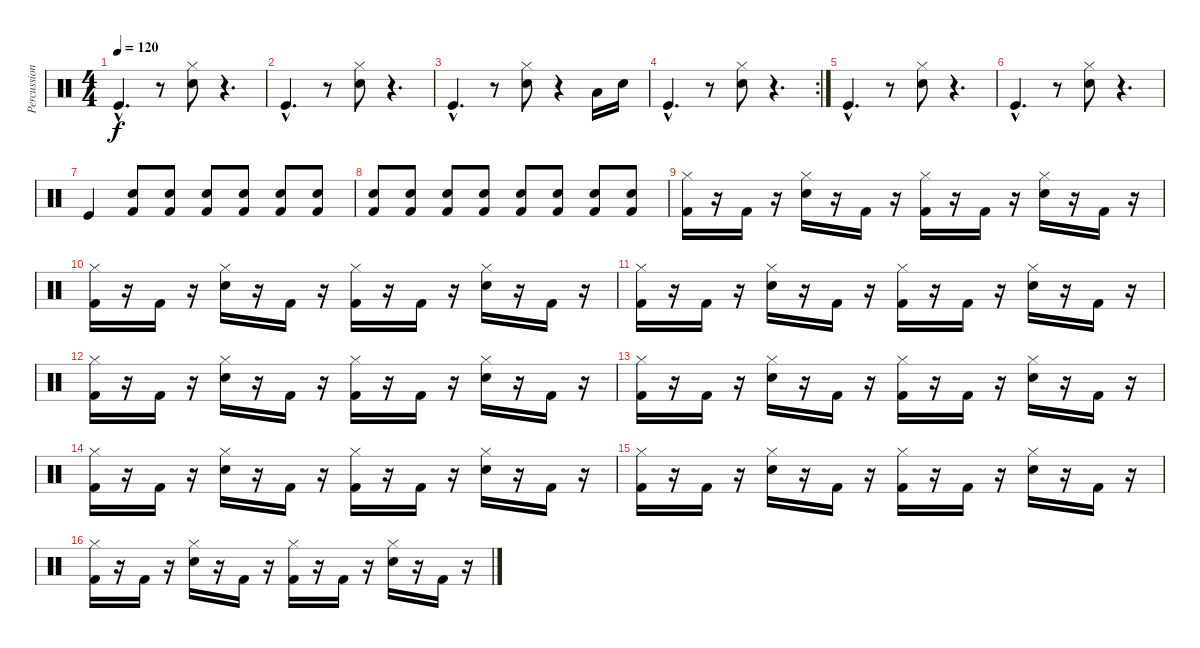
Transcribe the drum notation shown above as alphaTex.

\track ("Percussion" "Percussion") {instrument percussion}
\staff {score}
\articulation defaults
\ts (4 4)
\tempo 120
\clef neutral
\ks c "Kick (hit)"{hac}.4{d dy f}
r.8 ("Snare (hit) 2" "Hi-Hat (closed)").8 r.4{d} |
"Kick (hit)"{hac}.4{d} r.8 ("Snare (hit) 2" "Hi-Hat (closed)").8 r.4{d} |
"Kick (hit)"{hac}.4{d} r.8 ("Snare (hit) 2" "Hi-Hat (closed)").8 r.4 "Low Floor Tom (hit)".16 "Snare (hit) 2".16 |
\rc 2 "Kick (hit)"{hac}.4{d}
r.8 ("Snare (hit) 2" "Hi-Hat (closed)").8 r.4{d} |
"Kick (hit)"{hac}.4{d} r.8 ("Snare (hit) 2" "Hi-Hat (closed)").8 r.4{d} |
"Kick (hit)"{hac}.4{d} r.8 ("Snare (hit) 2" "Hi-Hat (closed)").8 r.4{d} |
"Kick (hit)".4 ("Kick (hit) 2" "Snare (hit) 2").8 ("Kick (hit) 2" "Snare (hit) 2").8 ("Kick (hit) 2" "Snare (hit) 2").8 ("Kick (hit) 2" "Snare (hit) 2").8 ("Kick (hit) 2" "Snare (hit) 2").8 ("Kick (hit) 2" "Snare (hit) 2").8 |
("Kick (hit) 2" "Snare (hit) 2").8 ("Kick (hit) 2" "Snare (hit) 2").8 ("Kick (hit) 2" "Snare (hit) 2").8 ("Kick (hit) 2" "Snare (hit) 2").8 ("Kick (hit) 2" "Snare (hit) 2").8 ("Kick (hit) 2" "Snare (hit) 2").8 ("Kick (hit) 2" "Snare (hit) 2").8 ("Kick (hit) 2" "Snare (hit) 2").8 |
("Kick (hit) 2" "Hi-Hat (closed)").16 r.16 "Kick (hit) 2".16 r.16 ("Snare (hit) 2" "Hi-Hat (closed)").16 r.16 "Kick (hit) 2".16 r.16 ("Kick (hit) 2" "Hi-Hat (closed)").16 r.16 "Kick (hit) 2".16 r.16 ("Snare (hit) 2" "Hi-Hat (closed)").16 r.16 "Kick (hit) 2".16 r.16 |
("Kick (hit) 2" "Hi-Hat (closed)").16 r.16 "Kick (hit) 2".16 r.16 ("Snare (hit) 2" "Hi-Hat (closed)").16 r.16 "Kick (hit) 2".16 r.16 ("Kick (hit) 2" "Hi-Hat (closed)").16 r.16 "Kick (hit) 2".16 r.16 ("Snare (hit) 2" "Hi-Hat (closed)").16 r.16 "Kick (hit) 2".16 r.16 |
("Kick (hit) 2" "Hi-Hat (closed)").16 r.16 "Kick (hit) 2".16 r.16 ("Snare (hit) 2" "Hi-Hat (closed)").16 r.16 "Kick (hit) 2".16 r.16 ("Kick (hit) 2" "Hi-Hat (closed)").16 r.16 "Kick (hit) 2".16 r.16 ("Snare (hit) 2" "Hi-Hat (closed)").16 r.16 "Kick (hit) 2".16 r.16 |
("Kick (hit) 2" "Hi-Hat (closed)").16 r.16 "Kick (hit) 2".16 r.16 ("Snare (hit) 2" "Hi-Hat (closed)").16 r.16 "Kick (hit) 2".16 r.16 ("Kick (hit) 2" "Hi-Hat (closed)").16 r.16 "Kick (hit) 2".16 r.16 ("Snare (hit) 2" "Hi-Hat (closed)").16 r.16 "Kick (hit) 2".16 r.16 |
("Kick (hit) 2" "Hi-Hat (closed)").16 r.16 "Kick (hit) 2".16 r.16 ("Snare (hit) 2" "Hi-Hat (closed)").16 r.16 "Kick (hit) 2".16 r.16 ("Kick (hit) 2" "Hi-Hat (closed)").16 r.16 "Kick (hit) 2".16 r.16 ("Snare (hit) 2" "Hi-Hat (closed)").16 r.16 "Kick (hit) 2".16 r.16 |
("Kick (hit) 2" "Hi-Hat (closed)").16 r.16 "Kick (hit) 2".16 r.16 ("Snare (hit) 2" "Hi-Hat (closed)").16 r.16 "Kick (hit) 2".16 r.16 ("Kick (hit) 2" "Hi-Hat (closed)").16 r.16 "Kick (hit) 2".16 r.16 ("Snare (hit) 2" "Hi-Hat (closed)").16 r.16 "Kick (hit) 2".16 r.16 |
("Kick (hit) 2" "Hi-Hat (closed)").16 r.16 "Kick (hit) 2".16 r.16 ("Snare (hit) 2" "Hi-Hat (closed)").16 r.16 "Kick (hit) 2".16 r.16 ("Kick (hit) 2" "Hi-Hat (closed)").16 r.16 "Kick (hit) 2".16 r.16 ("Snare (hit) 2" "Hi-Hat (closed)").16 r.16 "Kick (hit) 2".16 r.16 |
("Kick (hit) 2" "Hi-Hat (closed)").16 r.16 "Kick (hit) 2".16 r.16 ("Snare (hit) 2" "Hi-Hat (closed)").16 r.16 "Kick (hit) 2".16 r.16 ("Kick (hit) 2" "Hi-Hat (closed)").16 r.16 "Kick (hit) 2".16 r.16 ("Snare (hit) 2" "Hi-Hat (closed)").16 r.16 "Kick (hit) 2".16 r.16
